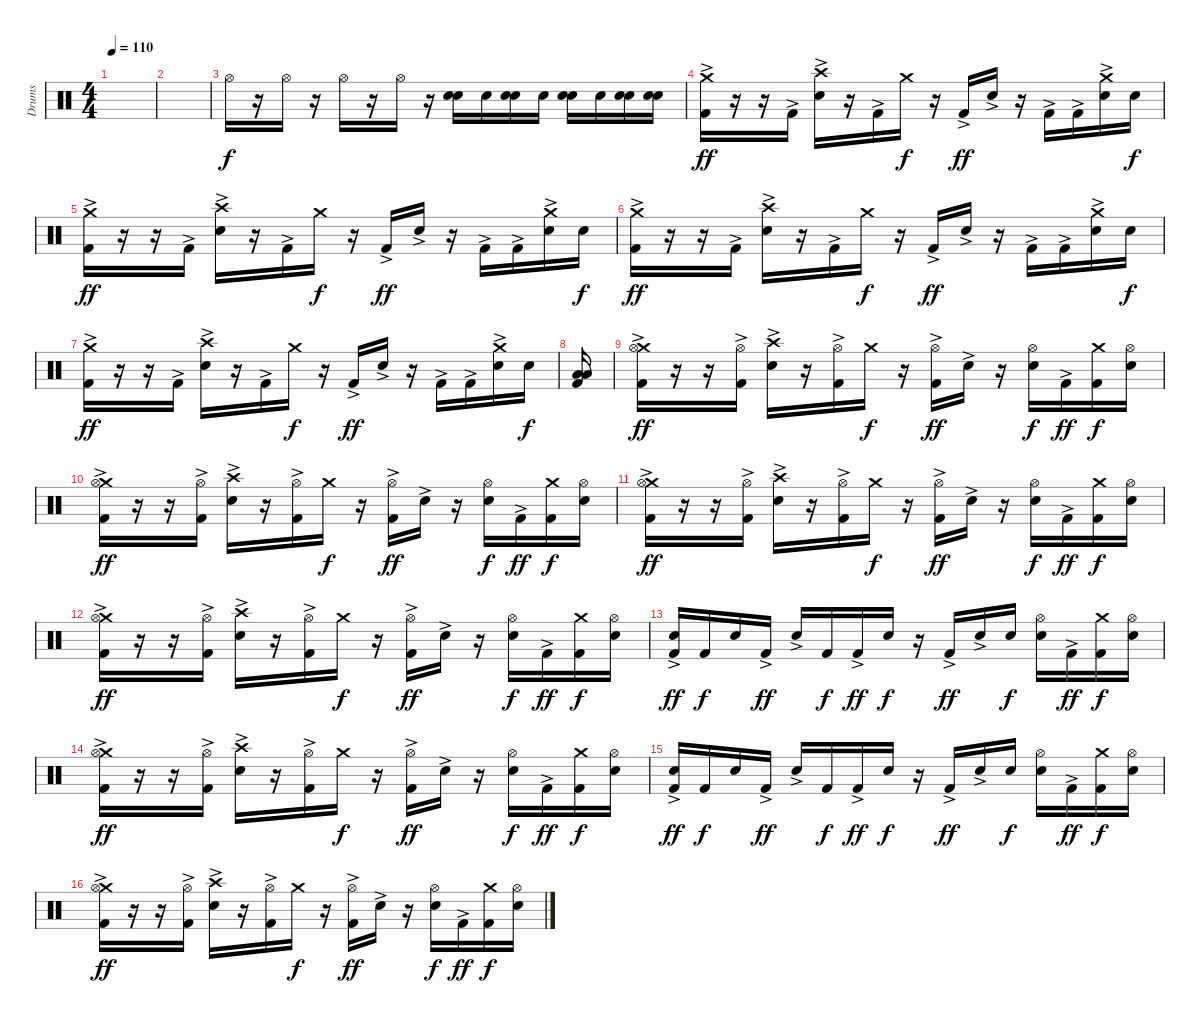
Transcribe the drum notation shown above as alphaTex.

\track ("Drums" "Drums") {instrument percussion}
\staff {score}
\articulation defaults
\ts (4 4)
\tempo 110
\clef neutral
\ks c
|
|
"Hi-Hat (open)".16 r.16 "Hi-Hat (open)".16 r.16 "Hi-Hat (open)".16 r.16 "Hi-Hat (open)".16 r.16 ("Snare (hit) 2" "Electric Snare (hit)").16 "Electric Snare (hit)".16 ("Snare (hit) 2" "Electric Snare (hit)").16 "Electric Snare (hit)".16 ("Snare (hit) 2" "Electric Snare (hit)").16 "Electric Snare (hit)".16 ("Snare (hit) 2" "Electric Snare (hit)").16 ("Snare (hit) 2" "Electric Snare (hit)").16 |
("Crash medium (hit)" "Kick (hit) 2"{ac}).16{dy ff} r.16 r.16 "Kick (hit) 2"{ac}.16 ("Crash high (hit)" "Snare (hit) 2"{ac}).16 r.16 "Kick (hit) 2"{ac}.16 "Crash medium (hit)".16{dy f} r.16 "Kick (hit) 2"{ac}.16{dy ff} "Snare (hit) 2"{ac}.16 r.16 "Kick (hit) 2"{ac}.16 "Kick (hit) 2"{ac}.16 ("Crash medium (hit)" "Snare (hit) 2"{ac}).16 "Electric Snare (hit)".16{dy f} |
("Crash medium (hit)" "Kick (hit) 2"{ac}).16{dy ff} r.16 r.16 "Kick (hit) 2"{ac}.16 ("Crash high (hit)" "Snare (hit) 2"{ac}).16 r.16 "Kick (hit) 2"{ac}.16 "Crash medium (hit)".16{dy f} r.16 "Kick (hit) 2"{ac}.16{dy ff} "Snare (hit) 2"{ac}.16 r.16 "Kick (hit) 2"{ac}.16 "Kick (hit) 2"{ac}.16 ("Crash medium (hit)" "Snare (hit) 2"{ac}).16 "Electric Snare (hit)".16{dy f} |
("Crash medium (hit)" "Kick (hit) 2"{ac}).16{dy ff} r.16 r.16 "Kick (hit) 2"{ac}.16 ("Crash high (hit)" "Snare (hit) 2"{ac}).16 r.16 "Kick (hit) 2"{ac}.16 "Crash medium (hit)".16{dy f} r.16 "Kick (hit) 2"{ac}.16{dy ff} "Snare (hit) 2"{ac}.16 r.16 "Kick (hit) 2"{ac}.16 "Kick (hit) 2"{ac}.16 ("Crash medium (hit)" "Snare (hit) 2"{ac}).16 "Electric Snare (hit)".16{dy f} |
("Crash medium (hit)" "Kick (hit) 2"{ac}).16{dy ff} r.16 r.16 "Kick (hit) 2"{ac}.16 ("Crash high (hit)" "Snare (hit) 2"{ac}).16 r.16 "Kick (hit) 2"{ac}.16 "Crash medium (hit)".16{dy f} r.16 "Kick (hit) 2"{ac}.16{dy ff} "Snare (hit) 2"{ac}.16 r.16 "Kick (hit) 2"{ac}.16 "Kick (hit) 2"{ac}.16 ("Crash medium (hit)" "Snare (hit) 2"{ac}).16 "Electric Snare (hit)".16{dy f} |
("Low Tom (hit)" "Low Tom (hit)" "Kick (hit) 2").16 |
("Crash medium (hit)" "Hi-Hat (open)" "Kick (hit) 2"{ac}).16{dy ff} r.16 r.16 ("Hi-Hat (open)" "Kick (hit) 2"{ac}).16 ("Crash high (hit)" "Snare (hit) 2"{ac}).16 r.16 ("Hi-Hat (open)" "Kick (hit) 2"{ac}).16 "Crash medium (hit)".16{dy f} r.16 ("Hi-Hat (open)" "Kick (hit) 2"{ac}).16{dy ff} "Snare (hit) 2"{ac}.16 r.16 ("Hi-Hat (open)" "Snare (hit) 2").16{dy f} "Kick (hit) 2"{ac}.16{dy ff} ("Crash medium (hit)" "Kick (hit) 2").16{dy f} ("Hi-Hat (open)" "Snare (hit) 2").16 |
("Crash medium (hit)" "Hi-Hat (open)" "Kick (hit) 2"{ac}).16{dy ff} r.16 r.16 ("Hi-Hat (open)" "Kick (hit) 2"{ac}).16 ("Crash high (hit)" "Snare (hit) 2"{ac}).16 r.16 ("Hi-Hat (open)" "Kick (hit) 2"{ac}).16 "Crash medium (hit)".16{dy f} r.16 ("Hi-Hat (open)" "Kick (hit) 2"{ac}).16{dy ff} "Snare (hit) 2"{ac}.16 r.16 ("Hi-Hat (open)" "Snare (hit) 2").16{dy f} "Kick (hit) 2"{ac}.16{dy ff} ("Crash medium (hit)" "Kick (hit) 2").16{dy f} ("Hi-Hat (open)" "Snare (hit) 2").16 |
("Crash medium (hit)" "Hi-Hat (open)" "Kick (hit) 2"{ac}).16{dy ff} r.16 r.16 ("Hi-Hat (open)" "Kick (hit) 2"{ac}).16 ("Crash high (hit)" "Snare (hit) 2"{ac}).16 r.16 ("Hi-Hat (open)" "Kick (hit) 2"{ac}).16 "Crash medium (hit)".16{dy f} r.16 ("Hi-Hat (open)" "Kick (hit) 2"{ac}).16{dy ff} "Snare (hit) 2"{ac}.16 r.16 ("Hi-Hat (open)" "Snare (hit) 2").16{dy f} "Kick (hit) 2"{ac}.16{dy ff} ("Crash medium (hit)" "Kick (hit) 2").16{dy f} ("Hi-Hat (open)" "Snare (hit) 2").16 |
("Crash medium (hit)" "Hi-Hat (open)" "Kick (hit) 2"{ac}).16{dy ff} r.16 r.16 ("Hi-Hat (open)" "Kick (hit) 2"{ac}).16 ("Crash high (hit)" "Snare (hit) 2"{ac}).16 r.16 ("Hi-Hat (open)" "Kick (hit) 2"{ac}).16 "Crash medium (hit)".16{dy f} r.16 ("Hi-Hat (open)" "Kick (hit) 2"{ac}).16{dy ff} "Snare (hit) 2"{ac}.16 r.16 ("Hi-Hat (open)" "Snare (hit) 2").16{dy f} "Kick (hit) 2"{ac}.16{dy ff} ("Crash medium (hit)" "Kick (hit) 2").16{dy f} ("Hi-Hat (open)" "Snare (hit) 2").16 |
("Electric Snare (hit)" "Kick (hit) 2"{ac}).16{dy ff} "Kick (hit) 2".16{dy f} "Electric Snare (hit)".16 "Kick (hit) 2"{ac}.16{dy ff} "Electric Snare (hit)"{ac}.16 "Kick (hit) 2".16{dy f} "Kick (hit) 2"{ac}.16{dy ff} "Electric Snare (hit)".16{dy f} r.16 "Kick (hit) 2"{ac}.16{dy ff} "Electric Snare (hit)"{ac}.16 "Electric Snare (hit)".16{dy f} ("Hi-Hat (open)" "Snare (hit) 2").16 "Kick (hit) 2"{ac}.16{dy ff} ("Crash medium (hit)" "Kick (hit) 2").16{dy f} ("Hi-Hat (open)" "Snare (hit) 2").16 |
("Crash medium (hit)" "Hi-Hat (open)" "Kick (hit) 2"{ac}).16{dy ff} r.16 r.16 ("Hi-Hat (open)" "Kick (hit) 2"{ac}).16 ("Crash high (hit)" "Snare (hit) 2"{ac}).16 r.16 ("Hi-Hat (open)" "Kick (hit) 2"{ac}).16 "Crash medium (hit)".16{dy f} r.16 ("Hi-Hat (open)" "Kick (hit) 2"{ac}).16{dy ff} "Snare (hit) 2"{ac}.16 r.16 ("Hi-Hat (open)" "Snare (hit) 2").16{dy f} "Kick (hit) 2"{ac}.16{dy ff} ("Crash medium (hit)" "Kick (hit) 2").16{dy f} ("Hi-Hat (open)" "Snare (hit) 2").16 |
("Electric Snare (hit)" "Kick (hit) 2"{ac}).16{dy ff} "Kick (hit) 2".16{dy f} "Electric Snare (hit)".16 "Kick (hit) 2"{ac}.16{dy ff} "Electric Snare (hit)"{ac}.16 "Kick (hit) 2".16{dy f} "Kick (hit) 2"{ac}.16{dy ff} "Electric Snare (hit)".16{dy f} r.16 "Kick (hit) 2"{ac}.16{dy ff} "Electric Snare (hit)"{ac}.16 "Electric Snare (hit)".16{dy f} ("Hi-Hat (open)" "Snare (hit) 2").16 "Kick (hit) 2"{ac}.16{dy ff} ("Crash medium (hit)" "Kick (hit) 2").16{dy f} ("Hi-Hat (open)" "Snare (hit) 2").16 |
("Crash medium (hit)" "Hi-Hat (open)" "Kick (hit) 2"{ac}).16{dy ff} r.16 r.16 ("Hi-Hat (open)" "Kick (hit) 2"{ac}).16 ("Crash high (hit)" "Snare (hit) 2"{ac}).16 r.16 ("Hi-Hat (open)" "Kick (hit) 2"{ac}).16 "Crash medium (hit)".16{dy f} r.16 ("Hi-Hat (open)" "Kick (hit) 2"{ac}).16{dy ff} "Snare (hit) 2"{ac}.16 r.16 ("Hi-Hat (open)" "Snare (hit) 2").16{dy f} "Kick (hit) 2"{ac}.16{dy ff} ("Crash medium (hit)" "Kick (hit) 2").16{dy f} ("Hi-Hat (open)" "Snare (hit) 2").16
